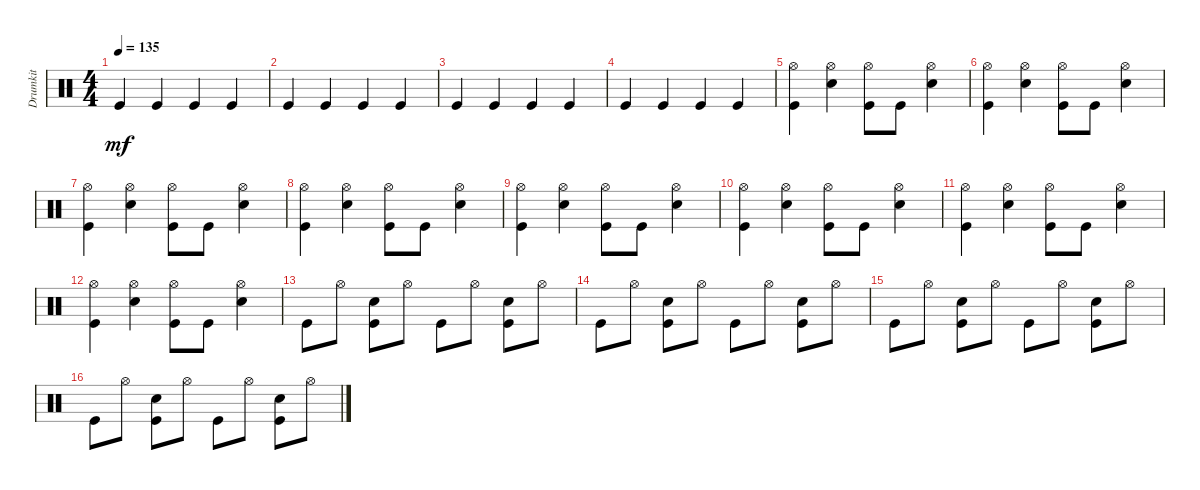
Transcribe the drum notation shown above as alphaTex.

\track ("Drumkit" "Drumkit") {instrument percussion}
\staff {score}
\articulation defaults
\ts (4 4)
\tempo 135
\clef neutral
\ks c "Kick (hit)".4{dy mf} "Kick (hit)".4 "Kick (hit)".4 "Kick (hit)".4
|
"Kick (hit)".4 "Kick (hit)".4 "Kick (hit)".4 "Kick (hit)".4 |
"Kick (hit)".4 "Kick (hit)".4 "Kick (hit)".4 "Kick (hit)".4 |
"Kick (hit)".4 "Kick (hit)".4 "Kick (hit)".4 "Kick (hit)".4 |
("Kick (hit)" "Hi-Hat (open)").4 ("Hi-Hat (open)" "Snare (hit) 2").4 ("Kick (hit)" "Hi-Hat (open)").8 "Kick (hit)".8 ("Snare (hit) 2" "Hi-Hat (open)").4 |
("Kick (hit)" "Hi-Hat (open)").4 ("Hi-Hat (open)" "Snare (hit) 2").4 ("Kick (hit)" "Hi-Hat (open)").8 "Kick (hit)".8 ("Snare (hit) 2" "Hi-Hat (open)").4 |
("Kick (hit)" "Hi-Hat (open)").4 ("Hi-Hat (open)" "Snare (hit) 2").4 ("Kick (hit)" "Hi-Hat (open)").8 "Kick (hit)".8 ("Snare (hit) 2" "Hi-Hat (open)").4 |
("Kick (hit)" "Hi-Hat (open)").4 ("Hi-Hat (open)" "Snare (hit) 2").4 ("Kick (hit)" "Hi-Hat (open)").8 "Kick (hit)".8 ("Snare (hit) 2" "Hi-Hat (open)").4 |
("Kick (hit)" "Hi-Hat (open)").4 ("Hi-Hat (open)" "Snare (hit) 2").4 ("Kick (hit)" "Hi-Hat (open)").8 "Kick (hit)".8 ("Snare (hit) 2" "Hi-Hat (open)").4 |
("Kick (hit)" "Hi-Hat (open)").4 ("Hi-Hat (open)" "Snare (hit) 2").4 ("Kick (hit)" "Hi-Hat (open)").8 "Kick (hit)".8 ("Snare (hit) 2" "Hi-Hat (open)").4 |
("Kick (hit)" "Hi-Hat (open)").4 ("Hi-Hat (open)" "Snare (hit) 2").4 ("Kick (hit)" "Hi-Hat (open)").8 "Kick (hit)".8 ("Snare (hit) 2" "Hi-Hat (open)").4 |
("Kick (hit)" "Hi-Hat (open)").4 ("Hi-Hat (open)" "Snare (hit) 2").4 ("Kick (hit)" "Hi-Hat (open)").8 "Kick (hit)".8 ("Snare (hit) 2" "Hi-Hat (open)").4 |
"Kick (hit)".8 "Hi-Hat (open)".8 ("Kick (hit)" "Snare (hit) 2").8 "Hi-Hat (open)".8 "Kick (hit)".8 "Hi-Hat (open)".8 ("Kick (hit)" "Snare (hit) 2").8 "Hi-Hat (open)".8 |
"Kick (hit)".8 "Hi-Hat (open)".8 ("Kick (hit)" "Snare (hit) 2").8 "Hi-Hat (open)".8 "Kick (hit)".8 "Hi-Hat (open)".8 ("Kick (hit)" "Snare (hit) 2").8 "Hi-Hat (open)".8 |
"Kick (hit)".8 "Hi-Hat (open)".8 ("Kick (hit)" "Snare (hit) 2").8 "Hi-Hat (open)".8 "Kick (hit)".8 "Hi-Hat (open)".8 ("Kick (hit)" "Snare (hit) 2").8 "Hi-Hat (open)".8 |
"Kick (hit)".8 "Hi-Hat (open)".8 ("Kick (hit)" "Snare (hit) 2").8 "Hi-Hat (open)".8 "Kick (hit)".8 "Hi-Hat (open)".8 ("Kick (hit)" "Snare (hit) 2").8 "Hi-Hat (open)".8
